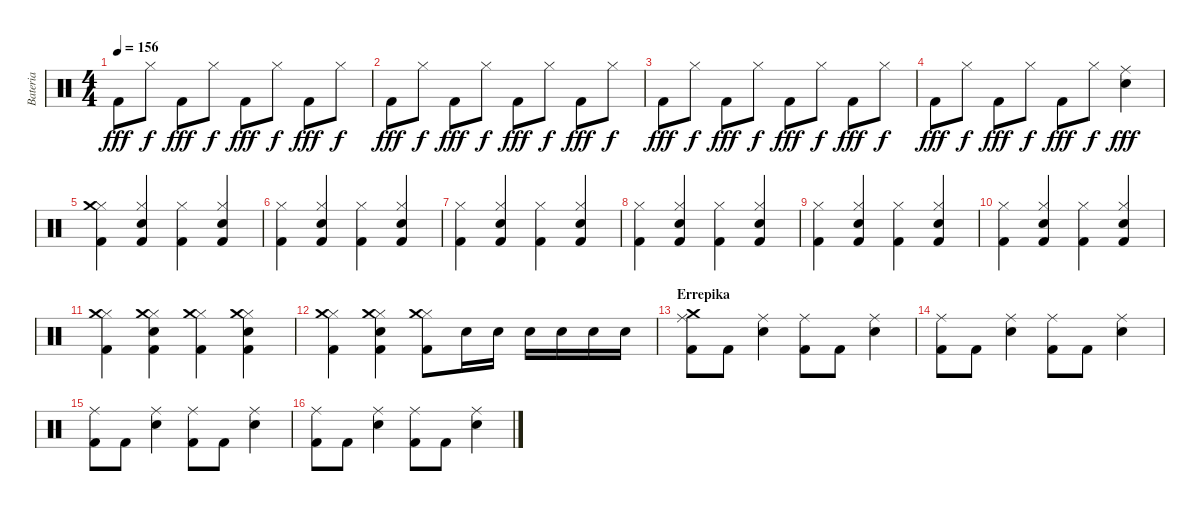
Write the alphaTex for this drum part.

\track ("Bateria" "Bateria") {instrument percussion}
\staff {score}
\articulation defaults
\ts (4 4)
\tempo 156
\clef neutral
\ks c "Kick (hit) 2".8{dy fff} "Hi-Hat (closed)".8{dy f} "Kick (hit) 2".8{dy fff} "Hi-Hat (closed)".8{dy f} "Kick (hit) 2".8{dy fff} "Hi-Hat (closed)".8{dy f} "Kick (hit) 2".8{dy fff} "Hi-Hat (closed)".8{dy f}
|
"Kick (hit) 2".8{dy fff} "Hi-Hat (closed)".8{dy f} "Kick (hit) 2".8{dy fff} "Hi-Hat (closed)".8{dy f} "Kick (hit) 2".8{dy fff} "Hi-Hat (closed)".8{dy f} "Kick (hit) 2".8{dy fff} "Hi-Hat (closed)".8{dy f} |
"Kick (hit) 2".8{dy fff} "Hi-Hat (closed)".8{dy f} "Kick (hit) 2".8{dy fff} "Hi-Hat (closed)".8{dy f} "Kick (hit) 2".8{dy fff} "Hi-Hat (closed)".8{dy f} "Kick (hit) 2".8{dy fff} "Hi-Hat (closed)".8{dy f} |
"Kick (hit) 2".8{dy fff} "Hi-Hat (closed)".8{dy f} "Kick (hit) 2".8{dy fff} "Hi-Hat (closed)".8{dy f} "Kick (hit) 2".8{dy fff} "Hi-Hat (closed)".8{dy f} ("Ride (middle)" "Electric Snare (hit)").4{dy fff} |
("Hi-Hat (closed)" "Kick (hit) 2" "Crash medium (hit)").4 ("Hi-Hat (closed)" "Kick (hit) 2" "Electric Snare (hit)").4 ("Hi-Hat (closed)" "Kick (hit) 2").4 ("Hi-Hat (closed)" "Kick (hit) 2" "Electric Snare (hit)").4 |
("Hi-Hat (closed)" "Kick (hit) 2").4 ("Hi-Hat (closed)" "Kick (hit) 2" "Electric Snare (hit)").4 ("Hi-Hat (closed)" "Kick (hit) 2").4 ("Hi-Hat (closed)" "Kick (hit) 2" "Electric Snare (hit)").4 |
("Hi-Hat (closed)" "Kick (hit) 2").4 ("Hi-Hat (closed)" "Kick (hit) 2" "Electric Snare (hit)").4 ("Hi-Hat (closed)" "Kick (hit) 2").4 ("Hi-Hat (closed)" "Kick (hit) 2" "Electric Snare (hit)").4 |
("Hi-Hat (closed)" "Kick (hit) 2").4 ("Hi-Hat (closed)" "Kick (hit) 2" "Electric Snare (hit)").4 ("Hi-Hat (closed)" "Kick (hit) 2").4 ("Hi-Hat (closed)" "Kick (hit) 2" "Electric Snare (hit)").4 |
("Hi-Hat (closed)" "Kick (hit) 2").4 ("Hi-Hat (closed)" "Kick (hit) 2" "Electric Snare (hit)").4 ("Hi-Hat (closed)" "Kick (hit) 2").4 ("Hi-Hat (closed)" "Kick (hit) 2" "Electric Snare (hit)").4 |
("Hi-Hat (closed)" "Kick (hit) 2").4 ("Hi-Hat (closed)" "Kick (hit) 2" "Electric Snare (hit)").4 ("Hi-Hat (closed)" "Kick (hit) 2").4 ("Hi-Hat (closed)" "Kick (hit) 2" "Electric Snare (hit)").4 |
("Hi-Hat (closed)" "Kick (hit) 2" "Crash medium (hit)").4 ("Hi-Hat (closed)" "Kick (hit) 2" "Electric Snare (hit)" "Crash medium (hit)").4 ("Hi-Hat (closed)" "Kick (hit) 2" "Crash medium (hit)").4 ("Hi-Hat (closed)" "Kick (hit) 2" "Electric Snare (hit)" "Crash medium (hit)").4 |
("Hi-Hat (closed)" "Kick (hit) 2" "Crash medium (hit)").4 ("Hi-Hat (closed)" "Kick (hit) 2" "Electric Snare (hit)" "Crash medium (hit)").4 ("Hi-Hat (closed)" "Kick (hit) 2" "Crash medium (hit)").8 "Electric Snare (hit)".16 "Electric Snare (hit)".16 "Electric Snare (hit)".16 "Electric Snare (hit)".16 "Electric Snare (hit)".16 "Electric Snare (hit)".16 |
\section ("" "Errepika")
("Ride (middle)" "Kick (hit) 2" "Crash medium (hit)").8 "Kick (hit) 2".8 ("Ride (middle)" "Electric Snare (hit)").4 ("Ride (middle)" "Kick (hit) 2").8 "Kick (hit) 2".8 ("Ride (middle)" "Electric Snare (hit)").4 |
("Ride (middle)" "Kick (hit) 2").8 "Kick (hit) 2".8 ("Ride (middle)" "Electric Snare (hit)").4 ("Ride (middle)" "Kick (hit) 2").8 "Kick (hit) 2".8 ("Ride (middle)" "Electric Snare (hit)").4 |
("Ride (middle)" "Kick (hit) 2").8 "Kick (hit) 2".8 ("Ride (middle)" "Electric Snare (hit)").4 ("Ride (middle)" "Kick (hit) 2").8 "Kick (hit) 2".8 ("Ride (middle)" "Electric Snare (hit)").4 |
("Ride (middle)" "Kick (hit) 2").8 "Kick (hit) 2".8 ("Ride (middle)" "Electric Snare (hit)").4 ("Ride (middle)" "Kick (hit) 2").8 "Kick (hit) 2".8 ("Ride (middle)" "Electric Snare (hit)").4
